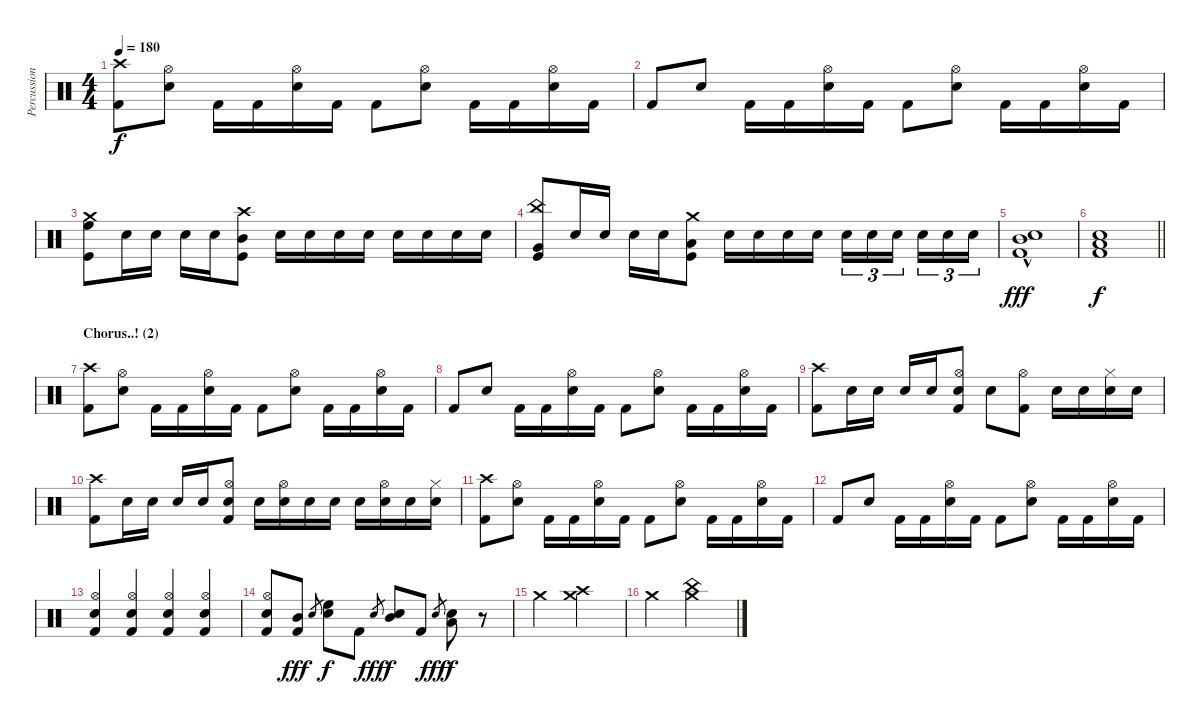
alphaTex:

\track ("Percussions" "Percussion") {instrument percussion}
\staff {score}
\articulation defaults
\ts (4 4)
\tempo 180
\clef neutral
\ks c
("Crash high (hit)" "Kick (hit) 2").8{dy f} ("Hi-Hat (open)" "Snare (hit) 2").8 "Kick (hit) 2".16 "Kick (hit) 2".16 ("Hi-Hat (open)" "Snare (hit) 2").16 "Kick (hit) 2".16 "Kick (hit) 2".8 ("Hi-Hat (open)" "Snare (hit) 2").8 "Kick (hit) 2".16 "Kick (hit) 2".16 ("Hi-Hat (open)" "Snare (hit) 2").16 "Kick (hit) 2".16 |
"Kick (hit) 2".8 "Snare (hit) 2".8 "Kick (hit) 2".16 "Kick (hit) 2".16 ("Hi-Hat (open)" "Snare (hit) 2").16 "Kick (hit) 2".16 "Kick (hit) 2".8 ("Hi-Hat (open)" "Snare (hit) 2").8 "Kick (hit) 2".16 "Kick (hit) 2".16 ("Hi-Hat (open)" "Snare (hit) 2").16 "Kick (hit) 2".16 |
("Crash medium (hit)" "High Floor Tom (hit)" "Kick (hit)").8 "Snare (hit) 2".16 "Snare (hit) 2".16 "Snare (hit) 2".16 "Snare (hit) 2".16 ("Crash high (hit)" "Mid Tom (hit)" "Kick (hit)").8 "Snare (hit) 2".16 "Snare (hit) 2".16 "Snare (hit) 2".16 "Snare (hit) 2".16 "Snare (hit) 2".16 "Snare (hit) 2".16 "Snare (hit) 2".16 "Snare (hit) 2".16 |
("China (hit)" "Very Low Tom (hit)" "Kick (hit)").8 "Snare (hit) 2".16 "Snare (hit) 2".16 "Snare (hit) 2".16 "Snare (hit) 2".16 ("Crash medium (hit)" "Low Floor Tom (hit)" "Kick (hit)").8 "Snare (hit) 2".16 "Snare (hit) 2".16 "Snare (hit) 2".16 "Snare (hit) 2".16 "Snare (hit) 2".16{tu (3 2)} "Snare (hit) 2".16{tu (3 2)} "Snare (hit) 2".16{tu (3 2) beam splitsecondary} "Snare (hit) 2".16{tu (3 2)} "Snare (hit) 2".16{tu (3 2)} "Snare (hit) 2".16{tu (3 2)} |
("Snare (hit) 2" "Mid Tom (hit)"{hac} "Kick (hit) 2").1{dy fff} |
\barLineRight lightlight
("Snare (hit) 2" "Low Floor Tom (hit)" "Kick (hit) 2").1{dy f} |
\section ("" "Chorus..! (2)")
("Crash high (hit)" "Kick (hit) 2").8 ("Hi-Hat (open)" "Snare (hit) 2").8 "Kick (hit) 2".16 "Kick (hit) 2".16 ("Hi-Hat (open)" "Snare (hit) 2").16 "Kick (hit) 2".16 "Kick (hit) 2".8 ("Hi-Hat (open)" "Snare (hit) 2").8 "Kick (hit) 2".16 "Kick (hit) 2".16 ("Hi-Hat (open)" "Snare (hit) 2").16 "Kick (hit) 2".16 |
"Kick (hit) 2".8 "Snare (hit) 2".8 "Kick (hit) 2".16 "Kick (hit) 2".16 ("Hi-Hat (open)" "Snare (hit) 2").16 "Kick (hit) 2".16 "Kick (hit) 2".8 ("Hi-Hat (open)" "Snare (hit) 2").8 "Kick (hit) 2".16 "Kick (hit) 2".16 ("Hi-Hat (open)" "Snare (hit) 2").16 "Kick (hit) 2".16 |
("Crash high (hit)" "Kick (hit) 2").8 "Snare (hit) 2".16 "Snare (hit) 2".16 "Snare (hit) 2".16 "Snare (hit) 2".16 ("Hi-Hat (open)" "Snare (hit) 2" "Kick (hit) 2").8 "Snare (hit) 2".8 ("Hi-Hat (open)" "Kick (hit) 2").8 "Snare (hit) 2".16 "Snare (hit) 2".16 ("Hi-Hat (closed)" "Snare (hit) 2").16 "Snare (hit) 2".16 |
("Crash high (hit)" "Kick (hit) 2").8 "Snare (hit) 2".16 "Snare (hit) 2".16 "Snare (hit) 2".16 "Snare (hit) 2".16 ("Hi-Hat (open)" "Snare (hit) 2" "Kick (hit) 2").8 "Snare (hit) 2".16 ("Hi-Hat (open)" "Snare (hit) 2").16 "Snare (hit) 2".16 "Snare (hit) 2".16 "Snare (hit) 2".16 ("Hi-Hat (open)" "Snare (hit) 2").16 "Snare (hit) 2".16 ("Hi-Hat (closed)" "Snare (hit) 2").16 |
("Crash high (hit)" "Kick (hit) 2").8 ("Hi-Hat (open)" "Snare (hit) 2").8 "Kick (hit) 2".16 "Kick (hit) 2".16 ("Hi-Hat (open)" "Snare (hit) 2").16 "Kick (hit) 2".16 "Kick (hit) 2".8 ("Hi-Hat (open)" "Snare (hit) 2").8 "Kick (hit) 2".16 "Kick (hit) 2".16 ("Hi-Hat (open)" "Snare (hit) 2").16 "Kick (hit) 2".16 |
"Kick (hit) 2".8 "Snare (hit) 2".8 "Kick (hit) 2".16 "Kick (hit) 2".16 ("Hi-Hat (open)" "Snare (hit) 2").16 "Kick (hit) 2".16 "Kick (hit) 2".8 ("Hi-Hat (open)" "Snare (hit) 2").8 "Kick (hit) 2".16 "Kick (hit) 2".16 ("Hi-Hat (open)" "Snare (hit) 2").16 "Kick (hit) 2".16 |
("Hi-Hat (open)" "Snare (hit) 2" "Kick (hit) 2").4 ("Hi-Hat (open)" "Snare (hit) 2" "Kick (hit) 2").4 ("Hi-Hat (open)" "Snare (hit) 2" "Kick (hit) 2").4 ("Hi-Hat (open)" "Snare (hit) 2" "Kick (hit) 2").4 |
("Hi-Hat (open)" "Snare (hit) 2" "Kick (hit) 2").8 ("Mid Tom (hit)" "Kick (hit) 2").8{dy fff} "Snare (hit) 2".8{gr} ("High Floor Tom (hit)" "Snare (hit) 2").8{dy f} "Kick (hit) 2".8 "Snare (hit) 2".8{gr dy fff} ("Mid Tom (hit)" "Snare (hit) 2").8{dy f} "Kick (hit) 2".8 "Snare (hit) 2".8{gr dy fff} ("Low Tom (hit)" "Snare (hit) 2").8{dy f} r.8 |
"Crash medium (hit)".2 ("Crash medium (hit)" "Crash high (hit)").2 |
"Crash medium (hit)".2 ("China (hit)" "Crash medium (hit)").2
